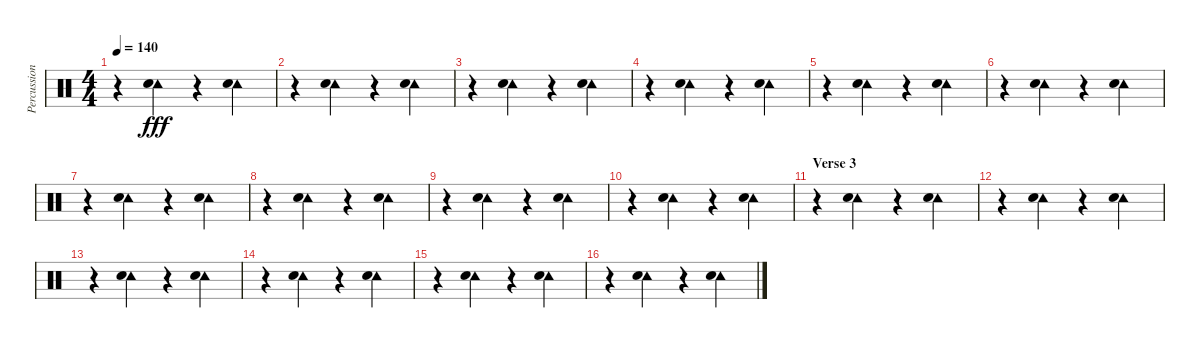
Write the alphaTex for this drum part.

\track ("Percussion" "Percussion") {instrument percussion}
\staff {score}
\articulation defaults
\ts (4 4)
\tempo 140
\clef neutral
\ks c
r.4{dy fff} ("Tambourine (hit)" "Hand Clap (hit)").4 r.4 ("Tambourine (hit)" "Hand Clap (hit)").4 |
r.4 ("Tambourine (hit)" "Hand Clap (hit)").4 r.4 ("Tambourine (hit)" "Hand Clap (hit)").4 |
r.4 ("Tambourine (hit)" "Hand Clap (hit)").4 r.4 ("Tambourine (hit)" "Hand Clap (hit)").4 |
r.4 ("Tambourine (hit)" "Hand Clap (hit)").4 r.4 ("Tambourine (hit)" "Hand Clap (hit)").4 |
r.4 ("Tambourine (hit)" "Hand Clap (hit)").4 r.4 ("Tambourine (hit)" "Hand Clap (hit)").4 |
r.4 ("Tambourine (hit)" "Hand Clap (hit)").4 r.4 ("Tambourine (hit)" "Hand Clap (hit)").4 |
r.4 ("Tambourine (hit)" "Hand Clap (hit)").4 r.4 ("Tambourine (hit)" "Hand Clap (hit)").4 |
r.4 ("Tambourine (hit)" "Hand Clap (hit)").4 r.4 ("Tambourine (hit)" "Hand Clap (hit)").4 |
r.4 ("Tambourine (hit)" "Hand Clap (hit)").4 r.4 ("Tambourine (hit)" "Hand Clap (hit)").4 |
r.4 ("Tambourine (hit)" "Hand Clap (hit)").4 r.4 ("Tambourine (hit)" "Hand Clap (hit)").4 |
\section ("" "Verse 3")
r.4 ("Tambourine (hit)" "Hand Clap (hit)").4 r.4 ("Tambourine (hit)" "Hand Clap (hit)").4 |
r.4 ("Tambourine (hit)" "Hand Clap (hit)").4 r.4 ("Tambourine (hit)" "Hand Clap (hit)").4 |
r.4 ("Tambourine (hit)" "Hand Clap (hit)").4 r.4 ("Tambourine (hit)" "Hand Clap (hit)").4 |
r.4 ("Tambourine (hit)" "Hand Clap (hit)").4 r.4 ("Tambourine (hit)" "Hand Clap (hit)").4 |
r.4 ("Tambourine (hit)" "Hand Clap (hit)").4 r.4 ("Tambourine (hit)" "Hand Clap (hit)").4 |
r.4 ("Tambourine (hit)" "Hand Clap (hit)").4 r.4 ("Tambourine (hit)" "Hand Clap (hit)").4
